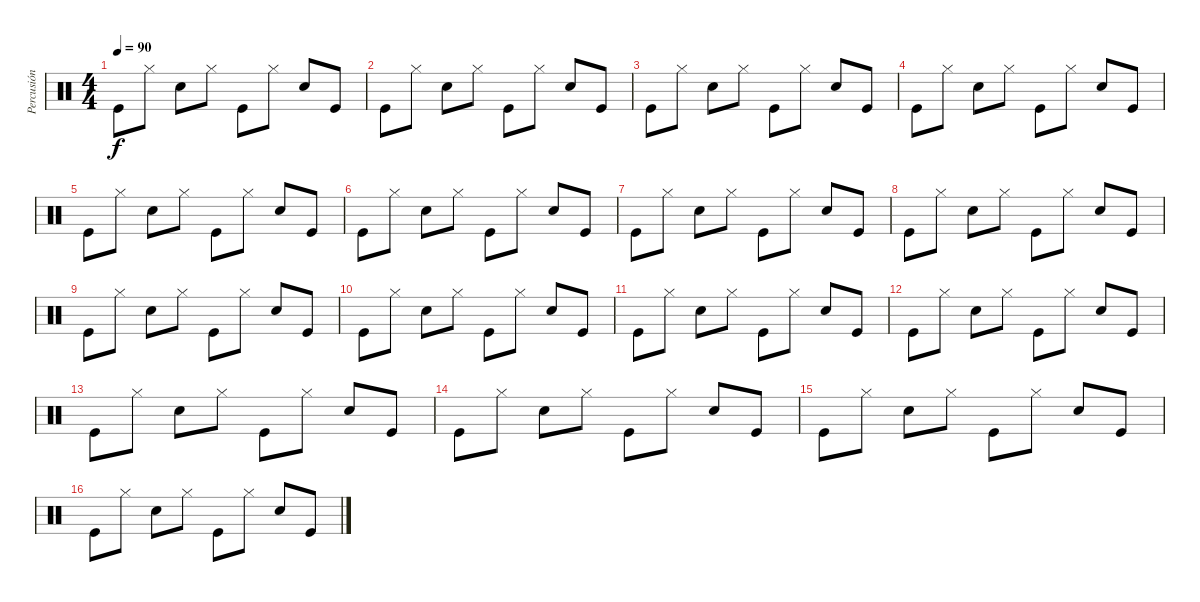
\track ("Percusión" "Percusión") {instrument percussion}
\staff {score}
\articulation defaults
\ts (4 4)
\tempo 90
\clef neutral
\ks c "Kick (hit)".8{dy f} "Hi-Hat (closed)".8 "Snare (hit) 2".8 "Hi-Hat (closed)".8 "Kick (hit)".8 "Hi-Hat (closed)".8 "Snare (hit) 2".8 "Kick (hit)".8
|
"Kick (hit)".8 "Hi-Hat (closed)".8 "Snare (hit) 2".8 "Hi-Hat (closed)".8 "Kick (hit)".8 "Hi-Hat (closed)".8 "Snare (hit) 2".8 "Kick (hit)".8 |
"Kick (hit)".8 "Hi-Hat (closed)".8 "Snare (hit) 2".8 "Hi-Hat (closed)".8 "Kick (hit)".8 "Hi-Hat (closed)".8 "Snare (hit) 2".8 "Kick (hit)".8 |
"Kick (hit)".8 "Hi-Hat (closed)".8 "Snare (hit) 2".8 "Hi-Hat (closed)".8 "Kick (hit)".8 "Hi-Hat (closed)".8 "Snare (hit) 2".8 "Kick (hit)".8 |
"Kick (hit)".8 "Hi-Hat (closed)".8 "Snare (hit) 2".8 "Hi-Hat (closed)".8 "Kick (hit)".8 "Hi-Hat (closed)".8 "Snare (hit) 2".8 "Kick (hit)".8 |
"Kick (hit)".8 "Hi-Hat (closed)".8 "Snare (hit) 2".8 "Hi-Hat (closed)".8 "Kick (hit)".8 "Hi-Hat (closed)".8 "Snare (hit) 2".8 "Kick (hit)".8 |
"Kick (hit)".8 "Hi-Hat (closed)".8 "Snare (hit) 2".8 "Hi-Hat (closed)".8 "Kick (hit)".8 "Hi-Hat (closed)".8 "Snare (hit) 2".8 "Kick (hit)".8 |
"Kick (hit)".8 "Hi-Hat (closed)".8 "Snare (hit) 2".8 "Hi-Hat (closed)".8 "Kick (hit)".8 "Hi-Hat (closed)".8 "Snare (hit) 2".8 "Kick (hit)".8 |
"Kick (hit)".8 "Hi-Hat (closed)".8 "Snare (hit) 2".8 "Hi-Hat (closed)".8 "Kick (hit)".8 "Hi-Hat (closed)".8 "Snare (hit) 2".8 "Kick (hit)".8 |
"Kick (hit)".8 "Hi-Hat (closed)".8 "Snare (hit) 2".8 "Hi-Hat (closed)".8 "Kick (hit)".8 "Hi-Hat (closed)".8 "Snare (hit) 2".8 "Kick (hit)".8 |
"Kick (hit)".8 "Hi-Hat (closed)".8 "Snare (hit) 2".8 "Hi-Hat (closed)".8 "Kick (hit)".8 "Hi-Hat (closed)".8 "Snare (hit) 2".8 "Kick (hit)".8 |
"Kick (hit)".8 "Hi-Hat (closed)".8 "Snare (hit) 2".8 "Hi-Hat (closed)".8 "Kick (hit)".8 "Hi-Hat (closed)".8 "Snare (hit) 2".8 "Kick (hit)".8 |
"Kick (hit)".8 "Hi-Hat (closed)".8 "Snare (hit) 2".8 "Hi-Hat (closed)".8 "Kick (hit)".8 "Hi-Hat (closed)".8 "Snare (hit) 2".8 "Kick (hit)".8 |
"Kick (hit)".8 "Hi-Hat (closed)".8 "Snare (hit) 2".8 "Hi-Hat (closed)".8 "Kick (hit)".8 "Hi-Hat (closed)".8 "Snare (hit) 2".8 "Kick (hit)".8 |
"Kick (hit)".8 "Hi-Hat (closed)".8 "Snare (hit) 2".8 "Hi-Hat (closed)".8 "Kick (hit)".8 "Hi-Hat (closed)".8 "Snare (hit) 2".8 "Kick (hit)".8 |
"Kick (hit)".8 "Hi-Hat (closed)".8 "Snare (hit) 2".8 "Hi-Hat (closed)".8 "Kick (hit)".8 "Hi-Hat (closed)".8 "Snare (hit) 2".8 "Kick (hit)".8
